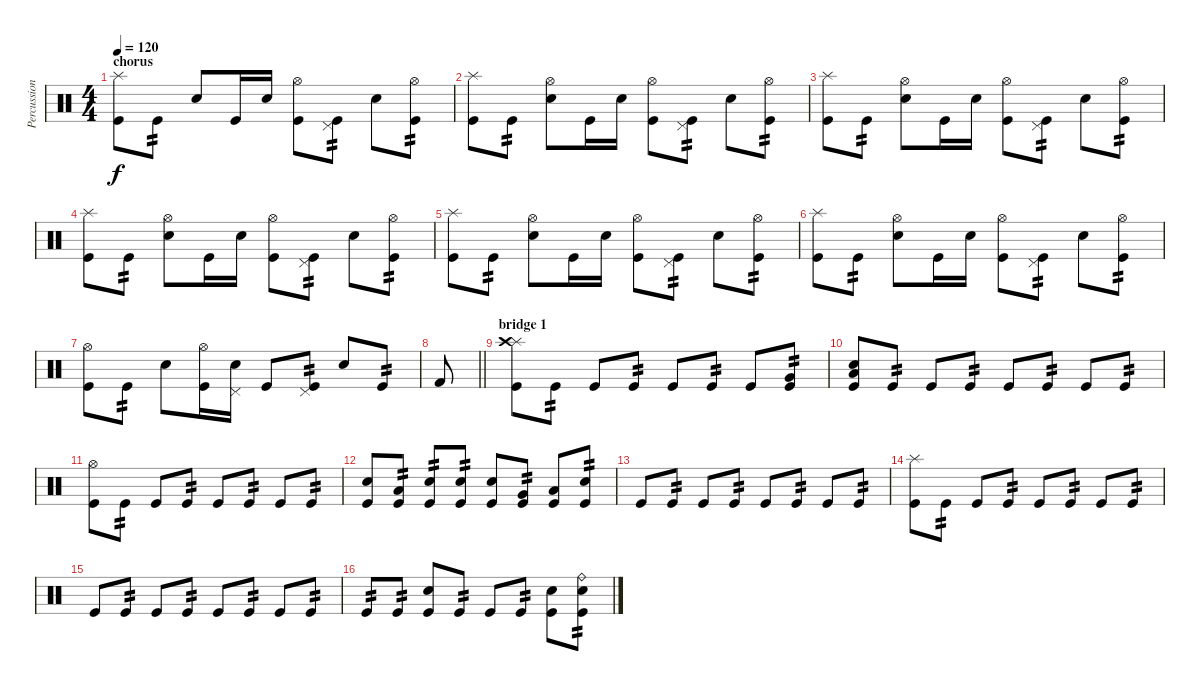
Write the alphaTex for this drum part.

\track ("Percussion" "Percussion") {instrument percussion}
\staff {score}
\articulation defaults
\ts (4 4)
\section ("" "chorus")
\tempo 120
\clef neutral
\ks c
("Splash (hit)" "Kick (hit)").8{dy f} "Kick (hit)".8{tp 2} "Electric Snare (hit)".8 "Kick (hit)".16 "Electric Snare (hit)".16 ("Hi-Hat (open)" "Kick (hit)").8 ("Pedal Hi-Hat (hit)" "Kick (hit)").8{tp 2} "Electric Snare (hit)".8 ("Hi-Hat (open)" "Kick (hit)").8{tp 2} |
("Splash (hit)" "Kick (hit)").8 "Kick (hit)".8{tp 2} ("Hi-Hat (open)" "Electric Snare (hit)").8 "Kick (hit)".16 "Electric Snare (hit)".16 ("Hi-Hat (open)" "Kick (hit)").8 ("Pedal Hi-Hat (hit)" "Kick (hit)").8{tp 2} "Electric Snare (hit)".8 ("Hi-Hat (open)" "Kick (hit)").8{tp 2} |
("Splash (hit)" "Kick (hit)").8 "Kick (hit)".8{tp 2} ("Hi-Hat (open)" "Electric Snare (hit)").8 "Kick (hit)".16 "Electric Snare (hit)".16 ("Hi-Hat (open)" "Kick (hit)").8 ("Pedal Hi-Hat (hit)" "Kick (hit)").8{tp 2} "Electric Snare (hit)".8 ("Hi-Hat (open)" "Kick (hit)").8{tp 2} |
("Splash (hit)" "Kick (hit)").8 "Kick (hit)".8{tp 2} ("Hi-Hat (open)" "Electric Snare (hit)").8 "Kick (hit)".16 "Electric Snare (hit)".16 ("Hi-Hat (open)" "Kick (hit)").8 ("Pedal Hi-Hat (hit)" "Kick (hit)").8{tp 2} "Electric Snare (hit)".8 ("Hi-Hat (open)" "Kick (hit)").8{tp 2} |
("Splash (hit)" "Kick (hit)").8 "Kick (hit)".8{tp 2} ("Hi-Hat (open)" "Electric Snare (hit)").8 "Kick (hit)".16 "Electric Snare (hit)".16 ("Hi-Hat (open)" "Kick (hit)").8 ("Pedal Hi-Hat (hit)" "Kick (hit)").8{tp 2} "Electric Snare (hit)".8 ("Hi-Hat (open)" "Kick (hit)").8{tp 2} |
("Splash (hit)" "Kick (hit)").8 "Kick (hit)".8{tp 2} ("Hi-Hat (open)" "Electric Snare (hit)").8 "Kick (hit)".16 "Electric Snare (hit)".16 ("Hi-Hat (open)" "Kick (hit)").8 ("Pedal Hi-Hat (hit)" "Kick (hit)").8{tp 2} "Electric Snare (hit)".8 ("Hi-Hat (open)" "Kick (hit)").8{tp 2} |
("Hi-Hat (open)" "Kick (hit)").8 "Kick (hit)".8{tp 2} "Electric Snare (hit)".8 ("Hi-Hat (open)" "Kick (hit)").16 ("Pedal Hi-Hat (hit)" "Electric Snare (hit)").16 "Kick (hit)".8 ("Pedal Hi-Hat (hit)" "Kick (hit)").8{tp 2} "Electric Snare (hit)".8 "Kick (hit)".8{tp 2} |
\barLineRight lightlight "Kick (hit) 2".8
|
\section ("" "bridge 1")
("Splash (hit)" "Crash high (hit)" "Kick (hit)").8 "Kick (hit)".8{tp 2} "Kick (hit)".8 "Kick (hit)".8{tp 2} "Kick (hit)".8 "Kick (hit)".8{tp 2} "Kick (hit)".8 ("Very Low Tom (hit)" "Kick (hit)").8{tp 2} |
("Electric Snare (hit)" "Low Floor Tom (hit)" "Kick (hit)").8 "Kick (hit)".8{tp 2} "Kick (hit)".8 "Kick (hit)".8{tp 2} "Kick (hit)".8 "Kick (hit)".8{tp 2} "Kick (hit)".8 "Kick (hit)".8{tp 2} |
("Hi-Hat (open)" "Kick (hit)").8 "Kick (hit)".8{tp 2} "Kick (hit)".8 "Kick (hit)".8{tp 2} "Kick (hit)".8 "Kick (hit)".8{tp 2} "Kick (hit)".8 "Kick (hit)".8{tp 2} |
("Electric Snare (hit)" "Kick (hit)").8 ("Low Tom (hit)" "Kick (hit)").8{tp 2} ("Electric Snare (hit)" "Kick (hit)").8{tp 2} ("Electric Snare (hit)" "Kick (hit)").8{tp 2} ("Electric Snare (hit)" "Kick (hit)").8 ("Very Low Tom (hit)" "Kick (hit)").8{tp 2} ("Low Floor Tom (hit)" "Kick (hit)").8 ("Electric Snare (hit)" "Kick (hit)").8{tp 2} |
"Kick (hit)".8 "Kick (hit)".8{tp 2} "Kick (hit)".8 "Kick (hit)".8{tp 2} "Kick (hit)".8 "Kick (hit)".8{tp 2} "Kick (hit)".8 "Kick (hit)".8{tp 2} |
("Splash (hit)" "Kick (hit)").8 "Kick (hit)".8{tp 2} "Kick (hit)".8 "Kick (hit)".8{tp 2} "Kick (hit)".8 "Kick (hit)".8{tp 2} "Kick (hit)".8 "Kick (hit)".8{tp 2} |
"Kick (hit)".8 "Kick (hit)".8{tp 2} "Kick (hit)".8 "Kick (hit)".8{tp 2} "Kick (hit)".8 "Kick (hit)".8{tp 2} "Kick (hit)".8 "Kick (hit)".8{tp 2} |
"Kick (hit)".8{tp 2} "Kick (hit)".8{tp 2} ("Electric Snare (hit)" "Kick (hit)").8 "Kick (hit)".8{tp 2} "Kick (hit)".8 "Kick (hit)".8{tp 2} ("Electric Snare (hit)" "Kick (hit)").8 ("Ride (bell)" "Electric Snare (hit)" "Kick (hit)").8{tp 2}
